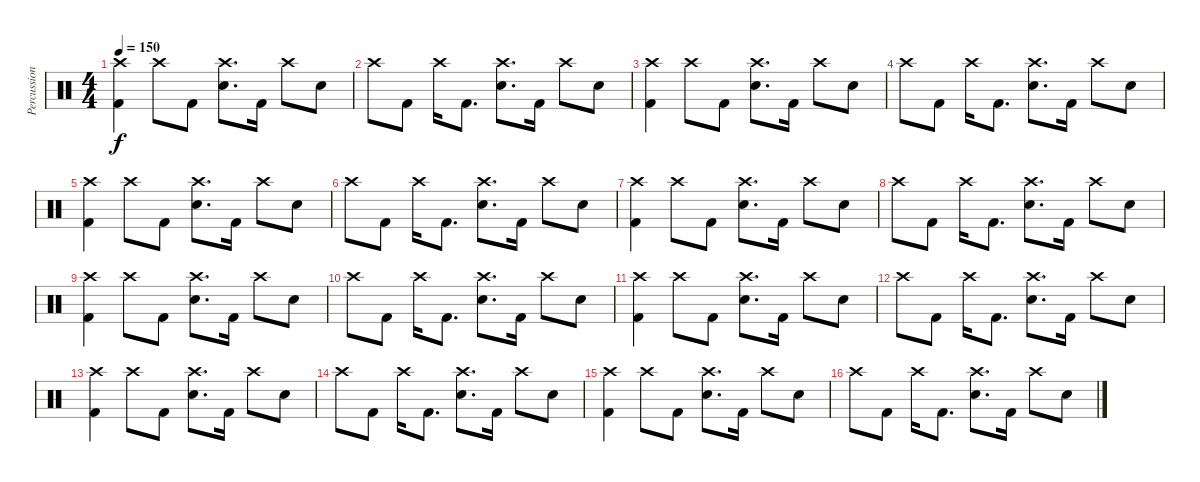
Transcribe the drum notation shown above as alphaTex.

\track ("Percussion" "Percussion") {instrument percussion}
\staff {score}
\articulation defaults
\ts (4 4)
\tempo 150
\clef neutral
\ks c
("Crash high (hit)" "Kick (hit) 2").4{dy f} "Crash high (hit)".8 "Kick (hit) 2".8 ("Crash high (hit)" "Electric Snare (hit)").8{d} "Kick (hit) 2".16 "Crash high (hit)".8 "Electric Snare (hit)".8 |
"Crash high (hit)".8 "Kick (hit) 2".8 "Crash high (hit)".16 "Kick (hit) 2".8{d} ("Crash high (hit)" "Electric Snare (hit)").8{d} "Kick (hit) 2".16 "Crash high (hit)".8 "Electric Snare (hit)".8 |
("Crash high (hit)" "Kick (hit) 2").4 "Crash high (hit)".8 "Kick (hit) 2".8 ("Crash high (hit)" "Electric Snare (hit)").8{d} "Kick (hit) 2".16 "Crash high (hit)".8 "Electric Snare (hit)".8 |
"Crash high (hit)".8 "Kick (hit) 2".8 "Crash high (hit)".16 "Kick (hit) 2".8{d} ("Crash high (hit)" "Electric Snare (hit)").8{d} "Kick (hit) 2".16 "Crash high (hit)".8 "Electric Snare (hit)".8 |
("Crash high (hit)" "Kick (hit) 2").4 "Crash high (hit)".8 "Kick (hit) 2".8 ("Crash high (hit)" "Electric Snare (hit)").8{d} "Kick (hit) 2".16 "Crash high (hit)".8 "Electric Snare (hit)".8 |
"Crash high (hit)".8 "Kick (hit) 2".8 "Crash high (hit)".16 "Kick (hit) 2".8{d} ("Crash high (hit)" "Electric Snare (hit)").8{d} "Kick (hit) 2".16 "Crash high (hit)".8 "Electric Snare (hit)".8 |
("Crash high (hit)" "Kick (hit) 2").4 "Crash high (hit)".8 "Kick (hit) 2".8 ("Crash high (hit)" "Electric Snare (hit)").8{d} "Kick (hit) 2".16 "Crash high (hit)".8 "Electric Snare (hit)".8 |
"Crash high (hit)".8 "Kick (hit) 2".8 "Crash high (hit)".16 "Kick (hit) 2".8{d} ("Crash high (hit)" "Electric Snare (hit)").8{d} "Kick (hit) 2".16 "Crash high (hit)".8 "Electric Snare (hit)".8 |
("Crash high (hit)" "Kick (hit) 2").4 "Crash high (hit)".8 "Kick (hit) 2".8 ("Crash high (hit)" "Electric Snare (hit)").8{d} "Kick (hit) 2".16 "Crash high (hit)".8 "Electric Snare (hit)".8 |
"Crash high (hit)".8 "Kick (hit) 2".8 "Crash high (hit)".16 "Kick (hit) 2".8{d} ("Crash high (hit)" "Electric Snare (hit)").8{d} "Kick (hit) 2".16 "Crash high (hit)".8 "Electric Snare (hit)".8 |
("Crash high (hit)" "Kick (hit) 2").4 "Crash high (hit)".8 "Kick (hit) 2".8 ("Crash high (hit)" "Electric Snare (hit)").8{d} "Kick (hit) 2".16 "Crash high (hit)".8 "Electric Snare (hit)".8 |
"Crash high (hit)".8 "Kick (hit) 2".8 "Crash high (hit)".16 "Kick (hit) 2".8{d} ("Crash high (hit)" "Electric Snare (hit)").8{d} "Kick (hit) 2".16 "Crash high (hit)".8 "Electric Snare (hit)".8 |
("Crash high (hit)" "Kick (hit) 2").4 "Crash high (hit)".8 "Kick (hit) 2".8 ("Crash high (hit)" "Electric Snare (hit)").8{d} "Kick (hit) 2".16 "Crash high (hit)".8 "Electric Snare (hit)".8 |
"Crash high (hit)".8 "Kick (hit) 2".8 "Crash high (hit)".16 "Kick (hit) 2".8{d} ("Crash high (hit)" "Electric Snare (hit)").8{d} "Kick (hit) 2".16 "Crash high (hit)".8 "Electric Snare (hit)".8 |
("Crash high (hit)" "Kick (hit) 2").4 "Crash high (hit)".8 "Kick (hit) 2".8 ("Crash high (hit)" "Electric Snare (hit)").8{d} "Kick (hit) 2".16 "Crash high (hit)".8 "Electric Snare (hit)".8 |
"Crash high (hit)".8 "Kick (hit) 2".8 "Crash high (hit)".16 "Kick (hit) 2".8{d} ("Crash high (hit)" "Electric Snare (hit)").8{d} "Kick (hit) 2".16 "Crash high (hit)".8 "Electric Snare (hit)".8
